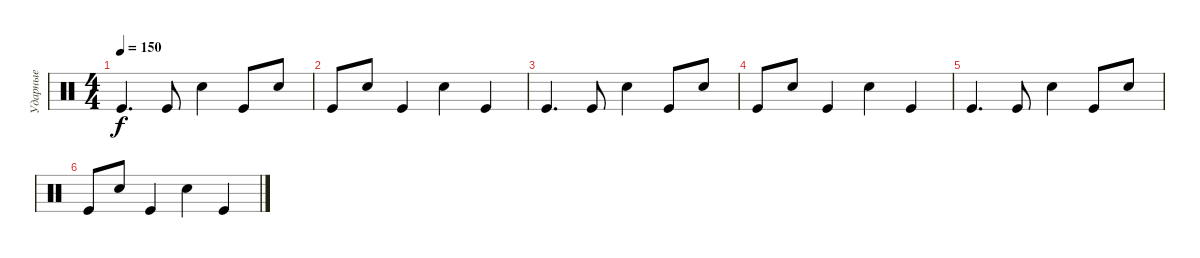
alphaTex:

\track ("Ударные" "Ударные") {instrument percussion}
\staff {score}
\articulation defaults
\ts (4 4)
\tempo 150
\clef neutral
\ks c "Kick (hit)".4{d dy f} "Kick (hit)".8 "Electric Snare (hit)".4 "Kick (hit)".8 "Electric Snare (hit)".8
|
"Kick (hit)".8 "Electric Snare (hit)".8 "Kick (hit)".4 "Electric Snare (hit)".4 "Kick (hit)".4 |
"Kick (hit)".4{d} "Kick (hit)".8 "Electric Snare (hit)".4 "Kick (hit)".8 "Electric Snare (hit)".8 |
"Kick (hit)".8 "Electric Snare (hit)".8 "Kick (hit)".4 "Electric Snare (hit)".4 "Kick (hit)".4 |
"Kick (hit)".4{d} "Kick (hit)".8 "Electric Snare (hit)".4 "Kick (hit)".8 "Electric Snare (hit)".8 |
"Kick (hit)".8 "Electric Snare (hit)".8 "Kick (hit)".4 "Electric Snare (hit)".4 "Kick (hit)".4
